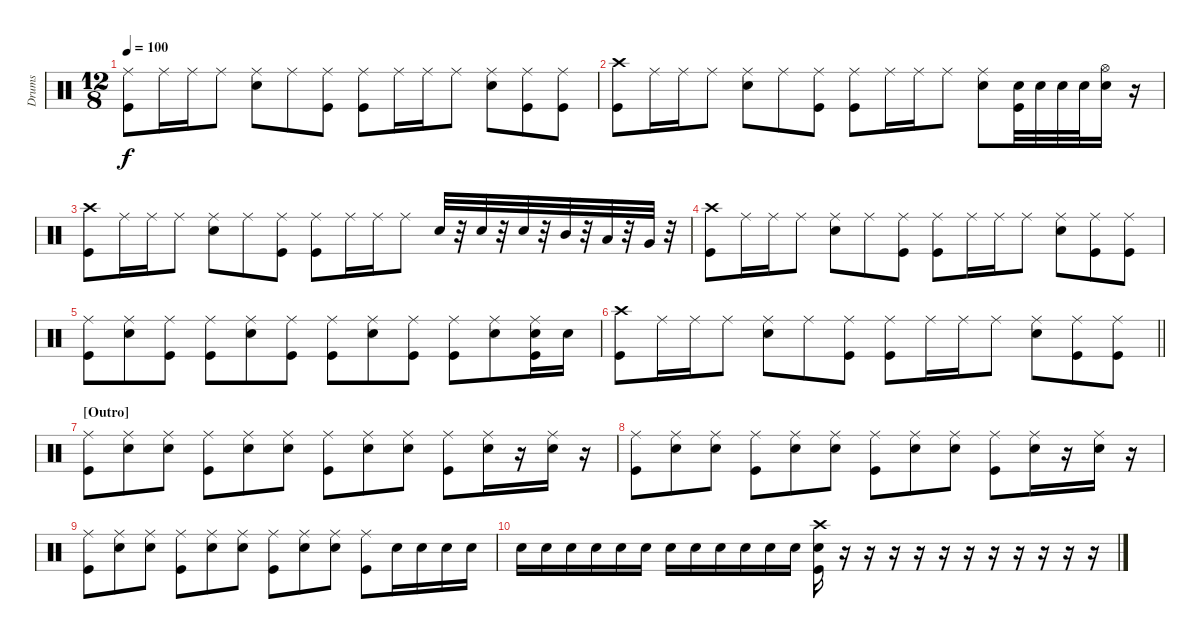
\track ("Drums" "Drums") {instrument percussion}
\staff {score}
\articulation defaults
\ts (12 8)
\tempo 100
\clef neutral
\ks c
("Ride (middle)" "Kick (hit)").8{dy f} "Ride (middle)".16 "Ride (middle)".16 "Ride (middle)".8 ("Ride (middle)" "Electric Snare (hit)").8 "Ride (middle)".8 ("Ride (middle)" "Kick (hit)").8 ("Ride (middle)" "Kick (hit)").8 "Ride (middle)".16 "Ride (middle)".16 "Ride (middle)".8 ("Ride (middle)" "Electric Snare (hit)").8 ("Ride (middle)" "Kick (hit)").8 ("Ride (middle)" "Kick (hit)").8 |
("Crash high (hit)" "Kick (hit)").8 "Ride (middle)".16 "Ride (middle)".16 "Ride (middle)".8 ("Ride (middle)" "Electric Snare (hit)").8 "Ride (middle)".8 ("Ride (middle)" "Kick (hit)").8 ("Ride (middle)" "Kick (hit)").8 "Ride (middle)".16 "Ride (middle)".16 "Ride (middle)".8 ("Ride (middle)" "Electric Snare (hit)").8 ("Electric Snare (hit)" "Kick (hit)").32 "Electric Snare (hit)".32 "Electric Snare (hit)".32 "Electric Snare (hit)".32 ("Hi-Hat (open)" "Electric Snare (hit)").16 r.16 |
("Crash high (hit)" "Kick (hit)").8 "Ride (middle)".16 "Ride (middle)".16 "Ride (middle)".8 ("Ride (middle)" "Electric Snare (hit)").8 "Ride (middle)".8 ("Ride (middle)" "Kick (hit)").8 ("Ride (middle)" "Kick (hit)").8 "Ride (middle)".16 "Ride (middle)".16 "Ride (middle)".8 "Electric Snare (hit)".32 r.32 "Electric Snare (hit)".32 r.32 "Electric Snare (hit)".32 r.32 "Mid Tom (hit)".32 r.32 "Low Tom (hit)".32 r.32 "Very Low Tom (hit)".32 r.32 |
("Crash high (hit)" "Kick (hit)").8 "Ride (middle)".16 "Ride (middle)".16 "Ride (middle)".8 ("Ride (middle)" "Electric Snare (hit)").8 "Ride (middle)".8 ("Ride (middle)" "Kick (hit)").8 ("Ride (middle)" "Kick (hit)").8 "Ride (middle)".16 "Ride (middle)".16 "Ride (middle)".8 ("Ride (middle)" "Electric Snare (hit)").8 ("Ride (middle)" "Kick (hit)").8 ("Ride (middle)" "Kick (hit)").8 |
("Ride (middle)" "Kick (hit)").8 ("Ride (middle)" "Electric Snare (hit)").8 ("Ride (middle)" "Kick (hit)").8 ("Ride (middle)" "Kick (hit)").8 ("Ride (middle)" "Electric Snare (hit)").8 ("Ride (middle)" "Kick (hit)").8 ("Ride (middle)" "Kick (hit)").8 ("Ride (middle)" "Electric Snare (hit)").8 ("Ride (middle)" "Kick (hit)").8 ("Ride (middle)" "Kick (hit)").8 ("Ride (middle)" "Electric Snare (hit)").8 ("Ride (middle)" "Electric Snare (hit)" "Kick (hit)").16 "Electric Snare (hit)".16 |
\barLineRight lightlight
("Crash high (hit)" "Kick (hit)").8 "Ride (middle)".16 "Ride (middle)".16 "Ride (middle)".8 ("Ride (middle)" "Electric Snare (hit)").8 "Ride (middle)".8 ("Ride (middle)" "Kick (hit)").8 ("Ride (middle)" "Kick (hit)").8 "Ride (middle)".16 "Ride (middle)".16 "Ride (middle)".8 ("Ride (middle)" "Electric Snare (hit)").8 ("Ride (middle)" "Kick (hit)").8 ("Ride (middle)" "Kick (hit)").8 |
\section ("" "[Outro]")
("Ride (middle)" "Kick (hit)").8 ("Ride (middle)" "Electric Snare (hit)").8 ("Ride (middle)" "Electric Snare (hit)").8 ("Ride (middle)" "Kick (hit)").8 ("Ride (middle)" "Electric Snare (hit)").8 ("Ride (middle)" "Electric Snare (hit)").8 ("Ride (middle)" "Kick (hit)").8 ("Ride (middle)" "Electric Snare (hit)").8 ("Ride (middle)" "Electric Snare (hit)").8 ("Ride (middle)" "Kick (hit)").8 ("Ride (middle)" "Electric Snare (hit)").16 r.16 ("Ride (middle)" "Electric Snare (hit)").16 r.16 |
("Ride (middle)" "Kick (hit)").8 ("Ride (middle)" "Electric Snare (hit)").8 ("Ride (middle)" "Electric Snare (hit)").8 ("Ride (middle)" "Kick (hit)").8 ("Ride (middle)" "Electric Snare (hit)").8 ("Ride (middle)" "Electric Snare (hit)").8 ("Ride (middle)" "Kick (hit)").8 ("Ride (middle)" "Electric Snare (hit)").8 ("Ride (middle)" "Electric Snare (hit)").8 ("Ride (middle)" "Kick (hit)").8 ("Ride (middle)" "Electric Snare (hit)").16 r.16 ("Ride (middle)" "Electric Snare (hit)").16 r.16 |
("Ride (middle)" "Kick (hit)").8 ("Ride (middle)" "Electric Snare (hit)").8 ("Ride (middle)" "Electric Snare (hit)").8 ("Ride (middle)" "Kick (hit)").8 ("Ride (middle)" "Electric Snare (hit)").8 ("Ride (middle)" "Electric Snare (hit)").8 ("Ride (middle)" "Kick (hit)").8 ("Ride (middle)" "Electric Snare (hit)").8 ("Ride (middle)" "Electric Snare (hit)").8 ("Ride (middle)" "Kick (hit)").8 "Electric Snare (hit)".16 "Electric Snare (hit)".16 "Electric Snare (hit)".16 "Electric Snare (hit)".16 |
"Electric Snare (hit)".16 "Electric Snare (hit)".16 "Electric Snare (hit)".16 "Electric Snare (hit)".16 "Electric Snare (hit)".16 "Electric Snare (hit)".16 "Electric Snare (hit)".16 "Electric Snare (hit)".16 "Electric Snare (hit)".16 "Electric Snare (hit)".16 "Electric Snare (hit)".16 "Electric Snare (hit)".16 ("Crash high (hit)" "Electric Snare (hit)" "Kick (hit)").16 r.16 r.16 r.16 r.16 r.16 r.16 r.16 r.16 r.16 r.16 r.16
